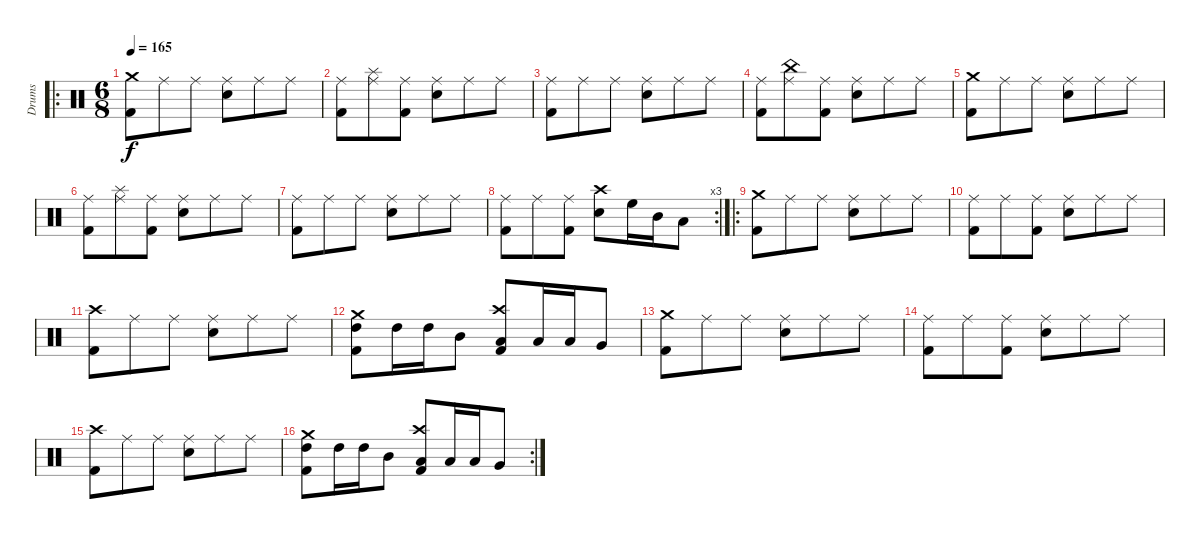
\track ("Drums" "Drums") {instrument percussion}
\staff {score}
\articulation defaults
\ro
\ts (6 8)
\tempo 165
\clef neutral
\ks c
("Crash medium (hit)" "Kick (hit) 2").8{dy f} "Ride (middle)".8 "Ride (middle)".8 ("Ride (middle)" "Snare (hit) 2").8 "Ride (middle)".8 "Ride (middle)".8 |
("Ride (middle)" "Kick (hit) 2").8 ("Splash (hit)" "Ride (middle)").8 ("Ride (middle)" "Kick (hit) 2").8 ("Ride (middle)" "Snare (hit) 2").8 "Ride (middle)".8 "Ride (middle)".8 |
("Ride (middle)" "Kick (hit) 2").8 "Ride (middle)".8 "Ride (middle)".8 ("Ride (middle)" "Snare (hit) 2").8 "Ride (middle)".8 "Ride (middle)".8 |
("Ride (middle)" "Kick (hit) 2").8 ("China (hit)" "Ride (middle)").8 ("Ride (middle)" "Kick (hit) 2").8 ("Ride (middle)" "Snare (hit) 2").8 "Ride (middle)".8 "Ride (middle)".8 |
("Crash medium (hit)" "Kick (hit) 2").8 "Ride (middle)".8 "Ride (middle)".8 ("Ride (middle)" "Snare (hit) 2").8 "Ride (middle)".8 "Ride (middle)".8 |
("Ride (middle)" "Kick (hit) 2").8 ("Splash (hit)" "Ride (middle)").8 ("Ride (middle)" "Kick (hit) 2").8 ("Ride (middle)" "Snare (hit) 2").8 "Ride (middle)".8 "Ride (middle)".8 |
("Ride (middle)" "Kick (hit) 2").8 "Ride (middle)".8 "Ride (middle)".8 ("Ride (middle)" "Snare (hit) 2").8 "Ride (middle)".8 "Ride (middle)".8 |
\rc 3
("Ride (middle)" "Kick (hit) 2").8 "Ride (middle)".8 ("Ride (middle)" "Kick (hit) 2").8 ("Crash high (hit)" "Snare (hit) 2").8 "High Floor Tom (hit)".16 "Mid Tom (hit)".16 "Low Tom (hit)".8 |
\ro
("Crash medium (hit)" "Kick (hit) 2").8 "Ride (middle)".8 "Ride (middle)".8 ("Ride (middle)" "Snare (hit) 2").8 "Ride (middle)".8 "Ride (middle)".8 |
("Ride (middle)" "Kick (hit) 2").8 "Ride (middle)".8 ("Ride (middle)" "Kick (hit) 2").8 ("Ride (middle)" "Snare (hit) 2").8 "Ride (middle)".8 "Ride (middle)".8 |
("Crash high (hit)" "Kick (hit) 2").8 "Ride (middle)".8 "Ride (middle)".8 ("Ride (middle)" "Snare (hit) 2").8 "Ride (middle)".8 "Ride (middle)".8 |
("Crash medium (hit)" "High Tom (hit)" "Kick (hit) 2").8 "High Tom (hit)".16 "High Tom (hit)".16 "Mid Tom (hit)".8 ("Crash high (hit)" "Low Tom (hit)" "Kick (hit) 2").8 "Low Tom (hit)".16 "Low Tom (hit)".16 "Very Low Tom (hit)".8 |
("Crash medium (hit)" "Kick (hit) 2").8 "Ride (middle)".8 "Ride (middle)".8 ("Ride (middle)" "Snare (hit) 2").8 "Ride (middle)".8 "Ride (middle)".8 |
("Ride (middle)" "Kick (hit) 2").8 "Ride (middle)".8 ("Ride (middle)" "Kick (hit) 2").8 ("Ride (middle)" "Snare (hit) 2").8 "Ride (middle)".8 "Ride (middle)".8 |
("Crash high (hit)" "Kick (hit) 2").8 "Ride (middle)".8 "Ride (middle)".8 ("Ride (middle)" "Snare (hit) 2").8 "Ride (middle)".8 "Ride (middle)".8 |
\rc 2
("Crash medium (hit)" "High Tom (hit)" "Kick (hit) 2").8 "High Tom (hit)".16 "High Tom (hit)".16 "Mid Tom (hit)".8 ("Crash high (hit)" "Low Tom (hit)" "Kick (hit) 2").8 "Low Tom (hit)".16 "Low Tom (hit)".16 "Very Low Tom (hit)".8
